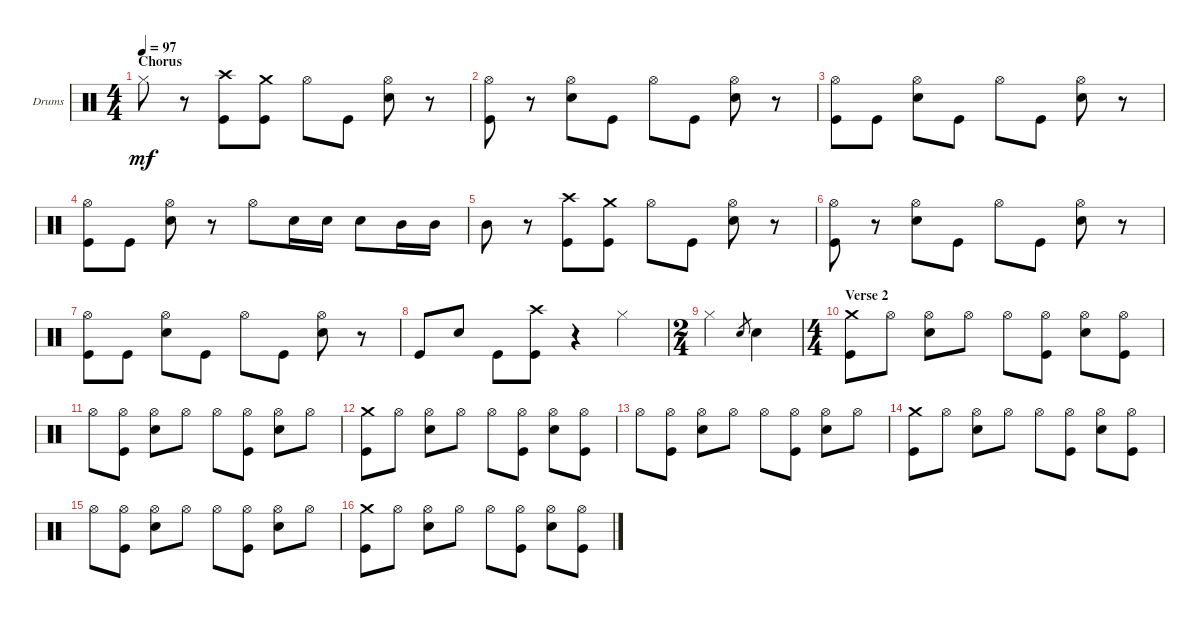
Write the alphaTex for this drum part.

\bracketExtendMode groupsimilarinstruments
\firstSystemTrackNameOrientation horizontal
\otherSystemsTrackNameOrientation horizontal
\track ("Drumkit" "Drums") {instrument percussion}
\staff {score}
\articulation defaults
\ts (4 4)
\section ("" "Chorus")
\tempo 97
\clef neutral
\ks c "Hi-Hat (closed)".8{dy mf}
r.8 ("Crash high (hit)" "Kick (hit)").8 ("Crash medium (hit)" "Kick (hit)").8 "Hi-Hat (open)".8 "Kick (hit)".8 ("Hi-Hat (open)" "Snare (hit) 2").8 r.8 |
("Hi-Hat (open)" "Kick (hit)").8 r.8 ("Hi-Hat (open)" "Snare (hit) 2").8 "Kick (hit)".8 "Hi-Hat (open)".8 "Kick (hit)".8 ("Hi-Hat (open)" "Snare (hit) 2").8 r.8 |
("Hi-Hat (open)" "Kick (hit)").8 "Kick (hit)".8 ("Hi-Hat (open)" "Snare (hit) 2").8 "Kick (hit)".8 "Hi-Hat (open)".8 "Kick (hit)".8 ("Hi-Hat (open)" "Snare (hit) 2").8 r.8 |
("Hi-Hat (open)" "Kick (hit)").8 "Kick (hit)".8 ("Hi-Hat (open)" "Snare (hit) 2").8 r.8 "Hi-Hat (open)".8 "Snare (hit) 2".16 "Snare (hit) 2".16 "Snare (hit) 2".8 "Mid Tom (hit)".16 "Mid Tom (hit)".16 |
"Mid Tom (hit)".8 r.8 ("Crash high (hit)" "Kick (hit)").8 ("Crash medium (hit)" "Kick (hit)").8 "Hi-Hat (open)".8 "Kick (hit)".8 ("Hi-Hat (open)" "Snare (hit) 2").8 r.8 |
("Hi-Hat (open)" "Kick (hit)").8 r.8 ("Hi-Hat (open)" "Snare (hit) 2").8 "Kick (hit)".8 "Hi-Hat (open)".8 "Kick (hit)".8 ("Hi-Hat (open)" "Snare (hit) 2").8 r.8 |
("Hi-Hat (open)" "Kick (hit)").8 "Kick (hit)".8 ("Hi-Hat (open)" "Snare (hit) 2").8 "Kick (hit)".8 "Hi-Hat (open)".8 "Kick (hit)".8 ("Hi-Hat (open)" "Snare (hit) 2").8 r.8 |
"Kick (hit)".8 "Snare (hit) 2".8 "Kick (hit)".8 ("Crash high (hit)" "Kick (hit)").8 r.4 "Hi-Hat (closed)".4 |
\ts (2 4)
"Hi-Hat (closed)".4 "Snare (hit) 2".8{gr} "Snare (hit) 2".4 |
\ts (4 4)
\section ("" "Verse 2")
("Crash medium (hit)" "Kick (hit)").8 "Hi-Hat (open)".8 ("Hi-Hat (open)" "Snare (hit) 2").8 "Hi-Hat (open)".8 "Hi-Hat (open)".8 ("Hi-Hat (open)" "Kick (hit)").8 ("Hi-Hat (open)" "Snare (hit) 2").8 ("Hi-Hat (open)" "Kick (hit)").8 |
"Hi-Hat (open)".8 ("Hi-Hat (open)" "Kick (hit)").8 ("Hi-Hat (open)" "Snare (hit) 2").8 "Hi-Hat (open)".8 "Hi-Hat (open)".8 ("Hi-Hat (open)" "Kick (hit)").8 ("Hi-Hat (open)" "Snare (hit) 2").8 "Hi-Hat (open)".8 |
("Crash medium (hit)" "Kick (hit)").8 "Hi-Hat (open)".8 ("Hi-Hat (open)" "Snare (hit) 2").8 "Hi-Hat (open)".8 "Hi-Hat (open)".8 ("Hi-Hat (open)" "Kick (hit)").8 ("Hi-Hat (open)" "Snare (hit) 2").8 ("Hi-Hat (open)" "Kick (hit)").8 |
"Hi-Hat (open)".8 ("Hi-Hat (open)" "Kick (hit)").8 ("Hi-Hat (open)" "Snare (hit) 2").8 "Hi-Hat (open)".8 "Hi-Hat (open)".8 ("Hi-Hat (open)" "Kick (hit)").8 ("Hi-Hat (open)" "Snare (hit) 2").8 "Hi-Hat (open)".8 |
("Crash medium (hit)" "Kick (hit)").8 "Hi-Hat (open)".8 ("Hi-Hat (open)" "Snare (hit) 2").8 "Hi-Hat (open)".8 "Hi-Hat (open)".8 ("Hi-Hat (open)" "Kick (hit)").8 ("Hi-Hat (open)" "Snare (hit) 2").8 ("Hi-Hat (open)" "Kick (hit)").8 |
"Hi-Hat (open)".8 ("Hi-Hat (open)" "Kick (hit)").8 ("Hi-Hat (open)" "Snare (hit) 2").8 "Hi-Hat (open)".8 "Hi-Hat (open)".8 ("Hi-Hat (open)" "Kick (hit)").8 ("Hi-Hat (open)" "Snare (hit) 2").8 "Hi-Hat (open)".8 |
("Crash medium (hit)" "Kick (hit)").8 "Hi-Hat (open)".8 ("Hi-Hat (open)" "Snare (hit) 2").8 "Hi-Hat (open)".8 "Hi-Hat (open)".8 ("Hi-Hat (open)" "Kick (hit)").8 ("Hi-Hat (open)" "Snare (hit) 2").8 ("Hi-Hat (open)" "Kick (hit)").8
